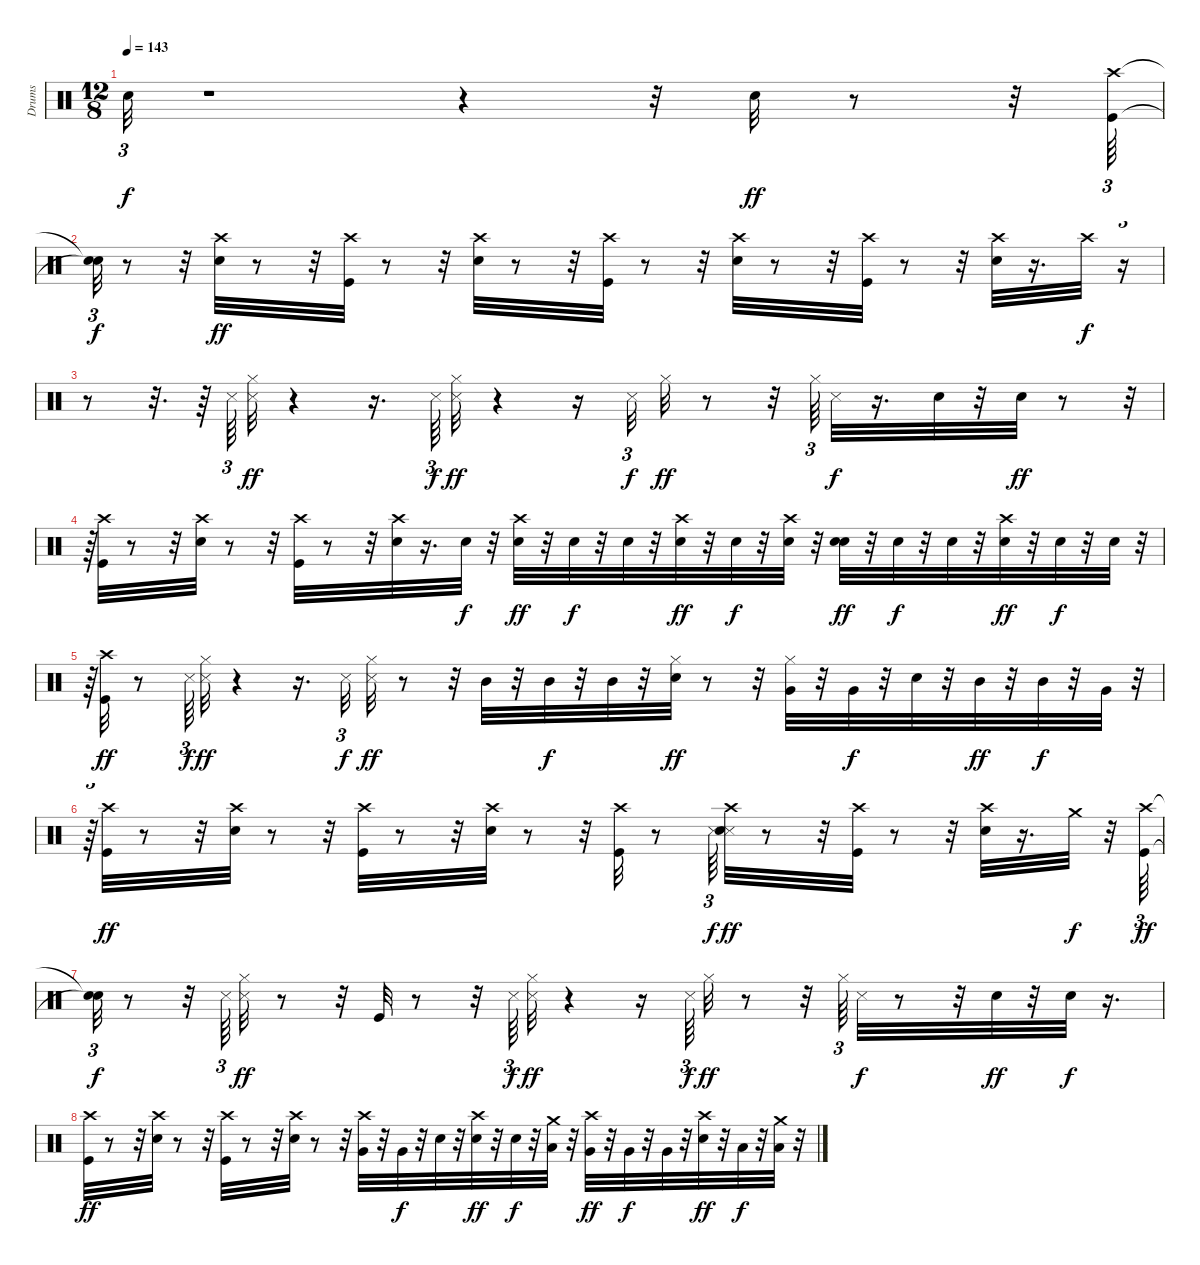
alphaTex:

\track ("Drums" "Drums") {instrument percussion}
\staff {score}
\articulation defaults
\ts (12 8)
\tempo 143
\clef neutral
\ks c "Snare (hit)"{t}.32{tu (3 2) dy f}
r.1 r.4 r.32 "Electric Snare (hit)".32{dy ff} r.8 r.32 ("Crash high (hit)" "Kick (hit)").64{tu (3 2)} |
("Snare (hit)"{t} "Snare (hit)"{t}).32{tu (3 2) dy f} r.8 r.32 ("Crash high (hit)" "Snare (hit) 2").32{dy ff} r.8 r.32 ("Crash high (hit)" "Kick (hit)").32 r.8 r.32 ("Crash high (hit)" "Snare (hit) 2").32 r.8 r.32 ("Crash high (hit)" "Kick (hit)").32 r.8 r.32 ("Crash high (hit)" "Snare (hit) 2").32 r.8 r.32 ("Crash high (hit)" "Kick (hit)").32 r.8 r.32 ("Crash high (hit)" "Snare (hit) 2").32 r.16{d} "Crash high (hit)".32{dy f} r.16{tu (3 2)} |
r.8 r.32{d} r.64 "Metronome (hit)".64{tu (3 2)} ("Metronome (hit)" "Hi-Hat (closed)").32{dy ff} r.4 r.16{d} "Metronome (hit)".64{tu (3 2) dy f} ("Metronome (hit)" "Hi-Hat (closed)").32{dy ff} r.4 r.16 "Metronome (hit)".32{tu (3 2) dy f} "Hi-Hat (closed)".32{dy ff} r.8 r.32 "Hi-Hat (closed)".64{tu (3 2)} "Metronome (hit)".32{dy f} r.16{d} "Snare (hit) 2".32 r.32 "Snare (hit) 2".32{dy ff} r.8 r.32{tu (3 2)} |
r.64{tu (3 2)} ("Crash high (hit)" "Kick (hit)").32 r.8 r.32 ("Crash high (hit)" "Snare (hit) 2").32 r.8 r.32 ("Crash high (hit)" "Kick (hit)").32 r.8 r.32 ("Crash high (hit)" "Snare (hit) 2").32 r.16{d} "Snare (hit) 2".32{dy f} r.32 ("Electric Snare (hit)" "Crash high (hit)").32{dy ff} r.32 "Snare (hit) 2".32{dy f} r.32 "Snare (hit) 2".32 r.32 ("Snare (hit) 2" "Crash high (hit)").32{dy ff} r.32 "Snare (hit) 2".32{dy f} r.32 ("Snare (hit) 2" "Crash high (hit)").32 r.32 ("Snare (hit) 2" "Electric Snare (hit)").32{dy ff} r.32 "Snare (hit) 2".32{dy f} r.32 "Snare (hit) 2".32 r.32 ("Snare (hit) 2" "Crash high (hit)").32{dy ff} r.32 "Snare (hit) 2".32{dy f} r.32 "Snare (hit) 2".32 r.32{tu (3 2)} |
r.64{tu (3 2)} ("Kick (hit)" "Crash high (hit)").32{dy ff} r.8 "Metronome (hit)".64{tu (3 2) dy f} ("Metronome (hit)" "Hi-Hat (closed)").32{dy ff} r.4 r.16{d} "Metronome (hit)".32{tu (3 2) dy f} ("Metronome (hit)" "Hi-Hat (closed)").32{dy ff} r.8 r.32 "Mid Tom (hit)".32 r.32 "Mid Tom (hit)".32{dy f} r.32 "Mid Tom (hit)".32 r.32 ("Hi-Hat (closed)" "Electric Snare (hit)").32{dy ff} r.8 r.32 ("Hi-Hat (closed)" "Very Low Tom (hit)").32 r.32 "Very Low Tom (hit)".32{dy f} r.32 "Electric Snare (hit)".32 r.32 "Mid Tom (hit)".32{dy ff} r.32 "Mid Tom (hit)".32{dy f} r.32 "Very Low Tom (hit)".32 r.32{tu (3 2)} |
r.64{tu (3 2)} ("Crash high (hit)" "Kick (hit)").32{dy ff} r.8 r.32 ("Crash high (hit)" "Snare (hit) 2").32 r.8 r.32 ("Crash high (hit)" "Kick (hit)").32 r.8 r.32 ("Crash high (hit)" "Snare (hit) 2").32 r.8 r.32 ("Crash high (hit)" "Kick (hit)").32 r.8 "Metronome (hit)".64{tu (3 2) dy f} ("Metronome (hit)" "Crash high (hit)" "Snare (hit) 2").32{dy ff} r.8 r.32 ("Crash high (hit)" "Kick (hit)").32 r.8 r.32 ("Crash high (hit)" "Snare (hit) 2").32 r.16{d} "Crash medium (hit)".32{dy f} r.32 ("Kick (hit)" "Crash high (hit)").64{tu (3 2) dy ff} |
("Snare (hit)"{t} "Snare (hit)"{t}).32{tu (3 2) dy f} r.8 r.32 "Metronome (hit)".64{tu (3 2)} ("Metronome (hit)" "Hi-Hat (closed)").32{dy ff} r.8 r.32 "Kick (hit)".32 r.8 r.32 "Metronome (hit)".64{tu (3 2) dy f} ("Metronome (hit)" "Hi-Hat (closed)").32{dy ff} r.4 r.16 "Metronome (hit)".64{tu (3 2) dy f} "Hi-Hat (closed)".32{dy ff} r.8 r.32 "Hi-Hat (closed)".64{tu (3 2)} "Metronome (hit)".32{dy f} r.8 r.32 "Snare (hit) 2".32{dy ff} r.32 "Snare (hit) 2".32{dy f} r.16{d} |
("Crash high (hit)" "Kick (hit)").32{dy ff} r.8 r.32 ("Crash high (hit)" "Snare (hit) 2").32 r.8 r.32 ("Crash high (hit)" "Kick (hit)").32 r.8 r.32 ("Crash high (hit)" "Snare (hit) 2").32 r.8 r.32 ("Very Low Tom (hit)" "Crash high (hit)").32 r.32 "Very Low Tom (hit)".32{dy f} r.32 "Snare (hit) 2".32 r.32 ("Snare (hit) 2" "Crash high (hit)").32{dy ff} r.32 "Snare (hit) 2".32{dy f} r.32 ("Crash medium (hit)" "Low Tom (hit)").32 r.32 ("Very Low Tom (hit)" "Crash high (hit)").32{dy ff} r.32 "Very Low Tom (hit)".32{dy f} r.32 "Very Low Tom (hit)".32 r.32 ("Crash high (hit)" "Snare (hit) 2").32{dy ff} r.32 "Low Tom (hit)".32{dy f} r.32 ("Crash medium (hit)" "Low Tom (hit)").32 r.32
